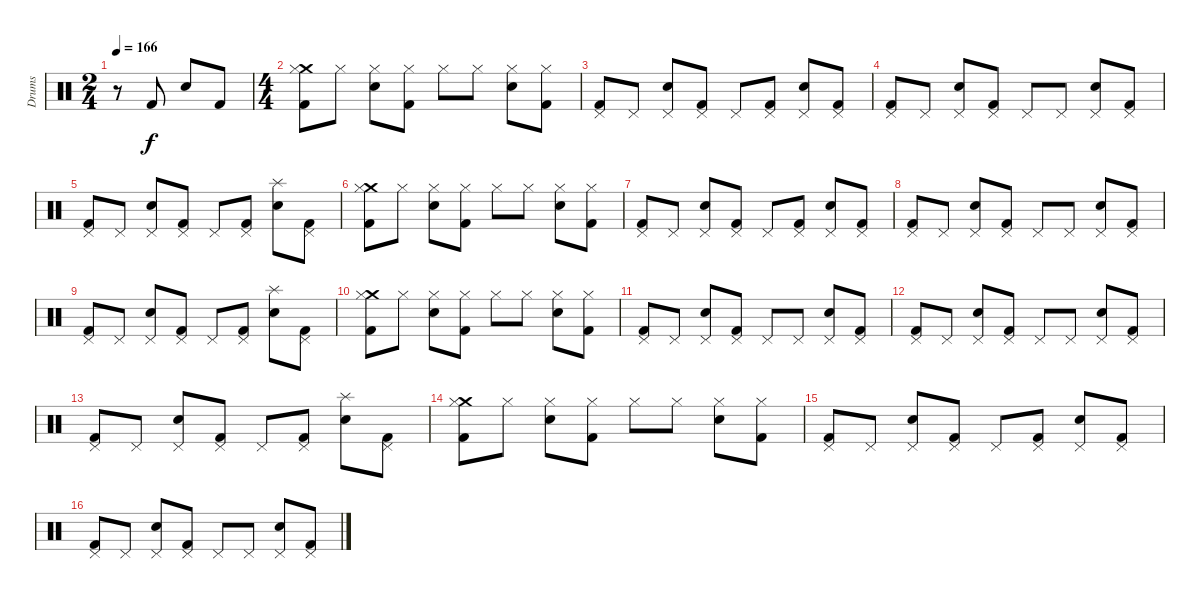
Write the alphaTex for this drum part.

\track ("Drums" "Drums") {instrument percussion}
\staff {score}
\articulation defaults
\ts (2 4)
\tempo 166
\clef neutral
\ks c
r.8{dy f} "Kick (hit) 2".8 "Electric Snare (hit)".8 "Kick (hit) 2".8 |
\ts (4 4)
("Crash medium (hit)" "Hi-Hat (closed)" "Kick (hit) 2").8 "Hi-Hat (closed)".8 ("Hi-Hat (closed)" "Electric Snare (hit)").8 ("Hi-Hat (closed)" "Kick (hit) 2").8 "Hi-Hat (closed)".8 "Hi-Hat (closed)".8 ("Hi-Hat (closed)" "Electric Snare (hit)").8 ("Hi-Hat (closed)" "Kick (hit) 2").8 |
("Pedal Hi-Hat (hit)" "Kick (hit) 2").8 "Pedal Hi-Hat (hit)".8 ("Pedal Hi-Hat (hit)" "Electric Snare (hit)").8 ("Pedal Hi-Hat (hit)" "Kick (hit) 2").8 "Pedal Hi-Hat (hit)".8 ("Pedal Hi-Hat (hit)" "Kick (hit) 2").8 ("Pedal Hi-Hat (hit)" "Electric Snare (hit)").8 ("Pedal Hi-Hat (hit)" "Kick (hit) 2").8 |
("Pedal Hi-Hat (hit)" "Kick (hit) 2").8 "Pedal Hi-Hat (hit)".8 ("Pedal Hi-Hat (hit)" "Electric Snare (hit)").8 ("Pedal Hi-Hat (hit)" "Kick (hit) 2").8 "Pedal Hi-Hat (hit)".8 "Pedal Hi-Hat (hit)".8 ("Pedal Hi-Hat (hit)" "Electric Snare (hit)").8 ("Pedal Hi-Hat (hit)" "Kick (hit) 2").8 |
("Pedal Hi-Hat (hit)" "Kick (hit) 2").8 "Pedal Hi-Hat (hit)".8 ("Pedal Hi-Hat (hit)" "Electric Snare (hit)").8 ("Pedal Hi-Hat (hit)" "Kick (hit) 2").8 "Pedal Hi-Hat (hit)".8 ("Pedal Hi-Hat (hit)" "Kick (hit) 2").8 ("Splash (hit)" "Electric Snare (hit)").8 ("Pedal Hi-Hat (hit)" "Kick (hit) 2").8 |
("Crash medium (hit)" "Hi-Hat (closed)" "Kick (hit) 2").8 "Hi-Hat (closed)".8 ("Hi-Hat (closed)" "Electric Snare (hit)").8 ("Hi-Hat (closed)" "Kick (hit) 2").8 "Hi-Hat (closed)".8 "Hi-Hat (closed)".8 ("Hi-Hat (closed)" "Electric Snare (hit)").8 ("Hi-Hat (closed)" "Kick (hit) 2").8 |
("Pedal Hi-Hat (hit)" "Kick (hit) 2").8 "Pedal Hi-Hat (hit)".8 ("Pedal Hi-Hat (hit)" "Electric Snare (hit)").8 ("Pedal Hi-Hat (hit)" "Kick (hit) 2").8 "Pedal Hi-Hat (hit)".8 ("Pedal Hi-Hat (hit)" "Kick (hit) 2").8 ("Pedal Hi-Hat (hit)" "Electric Snare (hit)").8 ("Pedal Hi-Hat (hit)" "Kick (hit) 2").8 |
("Pedal Hi-Hat (hit)" "Kick (hit) 2").8 "Pedal Hi-Hat (hit)".8 ("Pedal Hi-Hat (hit)" "Electric Snare (hit)").8 ("Pedal Hi-Hat (hit)" "Kick (hit) 2").8 "Pedal Hi-Hat (hit)".8 "Pedal Hi-Hat (hit)".8 ("Pedal Hi-Hat (hit)" "Electric Snare (hit)").8 ("Pedal Hi-Hat (hit)" "Kick (hit) 2").8 |
("Pedal Hi-Hat (hit)" "Kick (hit) 2").8 "Pedal Hi-Hat (hit)".8 ("Pedal Hi-Hat (hit)" "Electric Snare (hit)").8 ("Pedal Hi-Hat (hit)" "Kick (hit) 2").8 "Pedal Hi-Hat (hit)".8 ("Pedal Hi-Hat (hit)" "Kick (hit) 2").8 ("Splash (hit)" "Electric Snare (hit)").8 ("Pedal Hi-Hat (hit)" "Kick (hit) 2").8 |
("Crash medium (hit)" "Hi-Hat (closed)" "Kick (hit) 2").8 "Hi-Hat (closed)".8 ("Hi-Hat (closed)" "Electric Snare (hit)").8 ("Hi-Hat (closed)" "Kick (hit) 2").8 "Hi-Hat (closed)".8 "Hi-Hat (closed)".8 ("Hi-Hat (closed)" "Electric Snare (hit)").8 ("Hi-Hat (closed)" "Kick (hit) 2").8 |
("Pedal Hi-Hat (hit)" "Kick (hit) 2").8 "Pedal Hi-Hat (hit)".8 ("Pedal Hi-Hat (hit)" "Electric Snare (hit)").8 ("Pedal Hi-Hat (hit)" "Kick (hit) 2").8 "Pedal Hi-Hat (hit)".8 "Pedal Hi-Hat (hit)".8 ("Pedal Hi-Hat (hit)" "Electric Snare (hit)").8 ("Pedal Hi-Hat (hit)" "Kick (hit) 2").8 |
("Pedal Hi-Hat (hit)" "Kick (hit) 2").8 "Pedal Hi-Hat (hit)".8 ("Pedal Hi-Hat (hit)" "Electric Snare (hit)").8 ("Pedal Hi-Hat (hit)" "Kick (hit) 2").8 "Pedal Hi-Hat (hit)".8 "Pedal Hi-Hat (hit)".8 ("Pedal Hi-Hat (hit)" "Electric Snare (hit)").8 ("Pedal Hi-Hat (hit)" "Kick (hit) 2").8 |
("Pedal Hi-Hat (hit)" "Kick (hit) 2").8 "Pedal Hi-Hat (hit)".8 ("Pedal Hi-Hat (hit)" "Electric Snare (hit)").8 ("Pedal Hi-Hat (hit)" "Kick (hit) 2").8 "Pedal Hi-Hat (hit)".8 ("Pedal Hi-Hat (hit)" "Kick (hit) 2").8 ("Splash (hit)" "Electric Snare (hit)").8 ("Pedal Hi-Hat (hit)" "Kick (hit) 2").8 |
("Crash medium (hit)" "Hi-Hat (closed)" "Kick (hit) 2").8 "Hi-Hat (closed)".8 ("Hi-Hat (closed)" "Electric Snare (hit)").8 ("Hi-Hat (closed)" "Kick (hit) 2").8 "Hi-Hat (closed)".8 "Hi-Hat (closed)".8 ("Hi-Hat (closed)" "Electric Snare (hit)").8 ("Hi-Hat (closed)" "Kick (hit) 2").8 |
("Pedal Hi-Hat (hit)" "Kick (hit) 2").8 "Pedal Hi-Hat (hit)".8 ("Pedal Hi-Hat (hit)" "Electric Snare (hit)").8 ("Pedal Hi-Hat (hit)" "Kick (hit) 2").8 "Pedal Hi-Hat (hit)".8 ("Pedal Hi-Hat (hit)" "Kick (hit) 2").8 ("Pedal Hi-Hat (hit)" "Electric Snare (hit)").8 ("Pedal Hi-Hat (hit)" "Kick (hit) 2").8 |
("Pedal Hi-Hat (hit)" "Kick (hit) 2").8 "Pedal Hi-Hat (hit)".8 ("Pedal Hi-Hat (hit)" "Electric Snare (hit)").8 ("Pedal Hi-Hat (hit)" "Kick (hit) 2").8 "Pedal Hi-Hat (hit)".8 "Pedal Hi-Hat (hit)".8 ("Pedal Hi-Hat (hit)" "Electric Snare (hit)").8 ("Pedal Hi-Hat (hit)" "Kick (hit) 2").8
